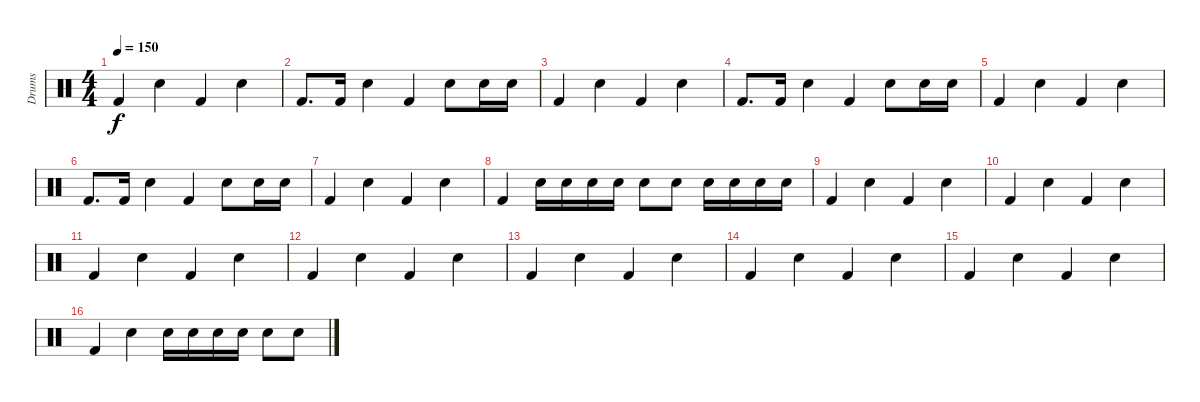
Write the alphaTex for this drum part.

\track ("Drums" "Drums") {instrument percussion}
\staff {score}
\articulation defaults
\ts (4 4)
\tempo 150
\clef neutral
\ks c "Kick (hit) 2".4{dy f} "Electric Snare (hit)".4 "Kick (hit) 2".4 "Electric Snare (hit)".4
|
"Kick (hit) 2".8{d} "Kick (hit) 2".16 "Electric Snare (hit)".4 "Kick (hit) 2".4 "Electric Snare (hit)".8 "Electric Snare (hit)".16 "Electric Snare (hit)".16 |
"Kick (hit) 2".4 "Electric Snare (hit)".4 "Kick (hit) 2".4 "Electric Snare (hit)".4 |
"Kick (hit) 2".8{d} "Kick (hit) 2".16 "Electric Snare (hit)".4 "Kick (hit) 2".4 "Electric Snare (hit)".8 "Electric Snare (hit)".16 "Electric Snare (hit)".16 |
"Kick (hit) 2".4 "Electric Snare (hit)".4 "Kick (hit) 2".4 "Electric Snare (hit)".4 |
"Kick (hit) 2".8{d} "Kick (hit) 2".16 "Electric Snare (hit)".4 "Kick (hit) 2".4 "Electric Snare (hit)".8 "Electric Snare (hit)".16 "Electric Snare (hit)".16 |
"Kick (hit) 2".4 "Electric Snare (hit)".4 "Kick (hit) 2".4 "Electric Snare (hit)".4 |
"Kick (hit) 2".4 "Electric Snare (hit)".16 "Electric Snare (hit)".16 "Electric Snare (hit)".16 "Electric Snare (hit)".16 "Electric Snare (hit)".8 "Electric Snare (hit)".8 "Electric Snare (hit)".16 "Electric Snare (hit)".16 "Electric Snare (hit)".16 "Electric Snare (hit)".16 |
"Kick (hit) 2".4 "Electric Snare (hit)".4 "Kick (hit) 2".4 "Electric Snare (hit)".4 |
"Kick (hit) 2".4 "Electric Snare (hit)".4 "Kick (hit) 2".4 "Electric Snare (hit)".4 |
"Kick (hit) 2".4 "Electric Snare (hit)".4 "Kick (hit) 2".4 "Electric Snare (hit)".4 |
"Kick (hit) 2".4 "Electric Snare (hit)".4 "Kick (hit) 2".4 "Electric Snare (hit)".4 |
"Kick (hit) 2".4 "Electric Snare (hit)".4 "Kick (hit) 2".4 "Electric Snare (hit)".4 |
"Kick (hit) 2".4 "Electric Snare (hit)".4 "Kick (hit) 2".4 "Electric Snare (hit)".4 |
"Kick (hit) 2".4 "Electric Snare (hit)".4 "Kick (hit) 2".4 "Electric Snare (hit)".4 |
"Kick (hit) 2".4 "Electric Snare (hit)".4 "Electric Snare (hit)".16 "Electric Snare (hit)".16 "Electric Snare (hit)".16 "Electric Snare (hit)".16 "Electric Snare (hit)".8 "Electric Snare (hit)".8
